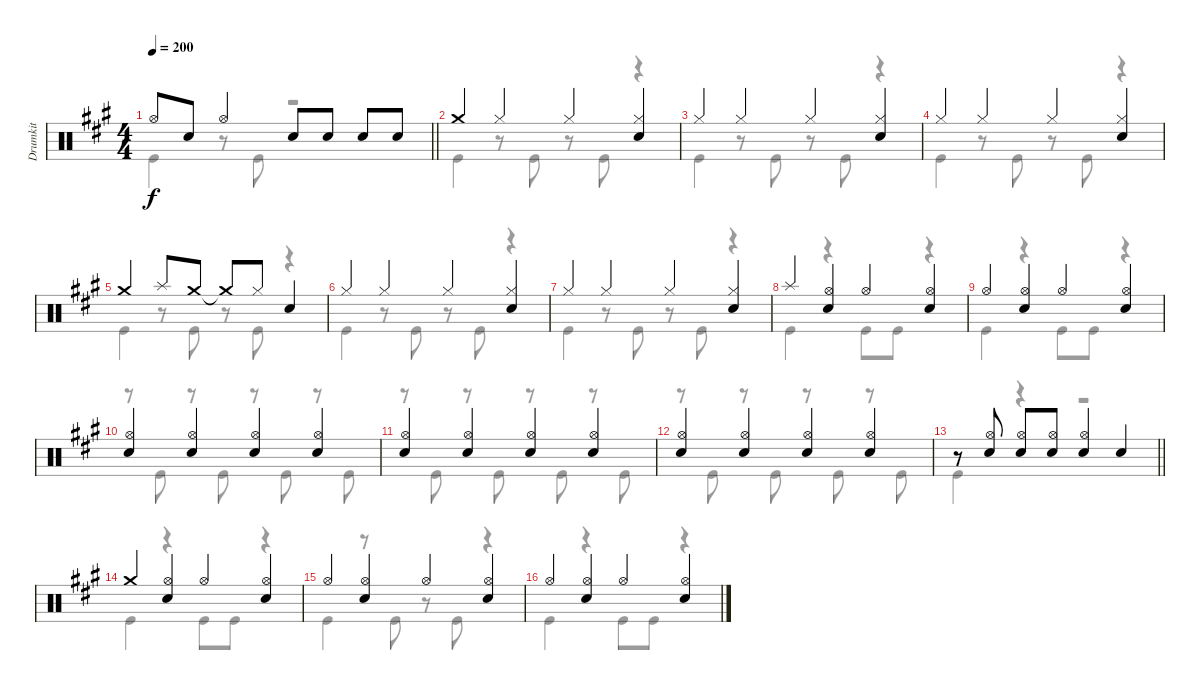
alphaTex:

\track ("Drumkit" "Drumkit") {instrument percussion}
\staff {score}
\articulation defaults
\voice
\ts (4 4)
\tempo 200
\clef neutral
\barLineRight lightlight
\ks a "Hi-Hat (open)".8{dy f} "Snare (hit) 2".8 "Hi-Hat (open)".4 "Snare (hit) 2".8 "Snare (hit) 2".8 "Snare (hit) 2".8 "Snare (hit) 2".8
|
\section ("" "")
"Crash medium (hit)".4 "Hi-Hat (closed)".4 "Hi-Hat (closed)".4 ("Hi-Hat (closed)" "Snare (hit) 2").4 |
"Hi-Hat (closed)".4 "Hi-Hat (closed)".4 "Hi-Hat (closed)".4 ("Hi-Hat (closed)" "Snare (hit) 2").4 |
"Hi-Hat (closed)".4 "Hi-Hat (closed)".4 "Hi-Hat (closed)".4 ("Hi-Hat (closed)" "Snare (hit) 2").4 |
"Crash medium (hit)".4 "Splash (hit)".8 "Crash medium (hit)".8 "Crash medium (hit)"{t}.8 "Hi-Hat (closed)".8 "Snare (hit) 2".4 |
"Hi-Hat (closed)".4 "Hi-Hat (closed)".4 "Hi-Hat (closed)".4 ("Hi-Hat (closed)" "Snare (hit) 2").4 |
"Hi-Hat (closed)".4 "Hi-Hat (closed)".4 "Hi-Hat (closed)".4 ("Hi-Hat (closed)" "Snare (hit) 2").4 |
"Splash (hit)".4 ("Hi-Hat (open)" "Snare (hit) 2").4 "Hi-Hat (open)".4 ("Hi-Hat (open)" "Snare (hit) 2").4 |
"Hi-Hat (open)".4 ("Hi-Hat (open)" "Snare (hit) 2").4 "Hi-Hat (open)".4 ("Hi-Hat (open)" "Snare (hit) 2").4 |
("Snare (hit) 2" "Hi-Hat (open)").4 ("Snare (hit) 2" "Hi-Hat (open)").4 ("Snare (hit) 2" "Hi-Hat (open)").4 ("Snare (hit) 2" "Hi-Hat (open)").4 |
("Snare (hit) 2" "Hi-Hat (open)").4 ("Snare (hit) 2" "Hi-Hat (open)").4 ("Snare (hit) 2" "Hi-Hat (open)").4 ("Snare (hit) 2" "Hi-Hat (open)").4 |
("Snare (hit) 2" "Hi-Hat (open)").4 ("Snare (hit) 2" "Hi-Hat (open)").4 ("Snare (hit) 2" "Hi-Hat (open)").4 ("Snare (hit) 2" "Hi-Hat (open)").4 |
\barLineRight lightlight
r.8 ("Snare (hit) 2" "Hi-Hat (open)").8 ("Snare (hit) 2" "Hi-Hat (open)").8 ("Snare (hit) 2" "Hi-Hat (open)").8 ("Snare (hit) 2" "Hi-Hat (open)").4 "Snare (hit) 2".4 |
\section ("" "")
"Crash medium (hit)".4 ("Hi-Hat (open)" "Snare (hit) 2").4 "Hi-Hat (open)".4 ("Hi-Hat (open)" "Snare (hit) 2").4 |
"Hi-Hat (open)".4 ("Hi-Hat (open)" "Snare (hit) 2").4 "Hi-Hat (open)".4 ("Hi-Hat (open)" "Snare (hit) 2").4 |
"Hi-Hat (open)".4 ("Hi-Hat (open)" "Snare (hit) 2").4 "Hi-Hat (open)".4 ("Hi-Hat (open)" "Snare (hit) 2").4
\voice
\clef neutral
\ottava regular
\simile none
\barLineRight lightlight
\ks a "Kick (hit)".4{dy f}
r.8 "Kick (hit)".8 r.2 |
"Kick (hit)".4 r.8 "Kick (hit)".8 r.8 "Kick (hit)".8 r.4 |
"Kick (hit)".4 r.8 "Kick (hit)".8 r.8 "Kick (hit)".8 r.4 |
"Kick (hit)".4 r.8 "Kick (hit)".8 r.8 "Kick (hit)".8 r.4 |
"Kick (hit)".4 r.8 "Kick (hit)".8 r.8 "Kick (hit)".8 r.4 |
"Kick (hit)".4 r.8 "Kick (hit)".8 r.8 "Kick (hit)".8 r.4 |
"Kick (hit)".4 r.8 "Kick (hit)".8 r.8 "Kick (hit)".8 r.4 |
"Kick (hit)".4 r.4 "Kick (hit)".8 "Kick (hit)".8 r.4 |
"Kick (hit)".4 r.4 "Kick (hit)".8 "Kick (hit)".8 r.4 |
r.8 "Kick (hit)".8 r.8 "Kick (hit)".8 r.8 "Kick (hit)".8 r.8 "Kick (hit)".8 |
r.8 "Kick (hit)".8 r.8 "Kick (hit)".8 r.8 "Kick (hit)".8 r.8 "Kick (hit)".8 |
r.8 "Kick (hit)".8 r.8 "Kick (hit)".8 r.8 "Kick (hit)".8 r.8 "Kick (hit)".8 |
\barLineRight lightlight "Kick (hit)".4
r.4 r.2 |
"Kick (hit)".4 r.4 "Kick (hit)".8 "Kick (hit)".8 r.4 |
"Kick (hit)".4 r.8 "Kick (hit)".8 r.8 "Kick (hit)".8 r.4 |
"Kick (hit)".4 r.4 "Kick (hit)".8 "Kick (hit)".8 r.4
